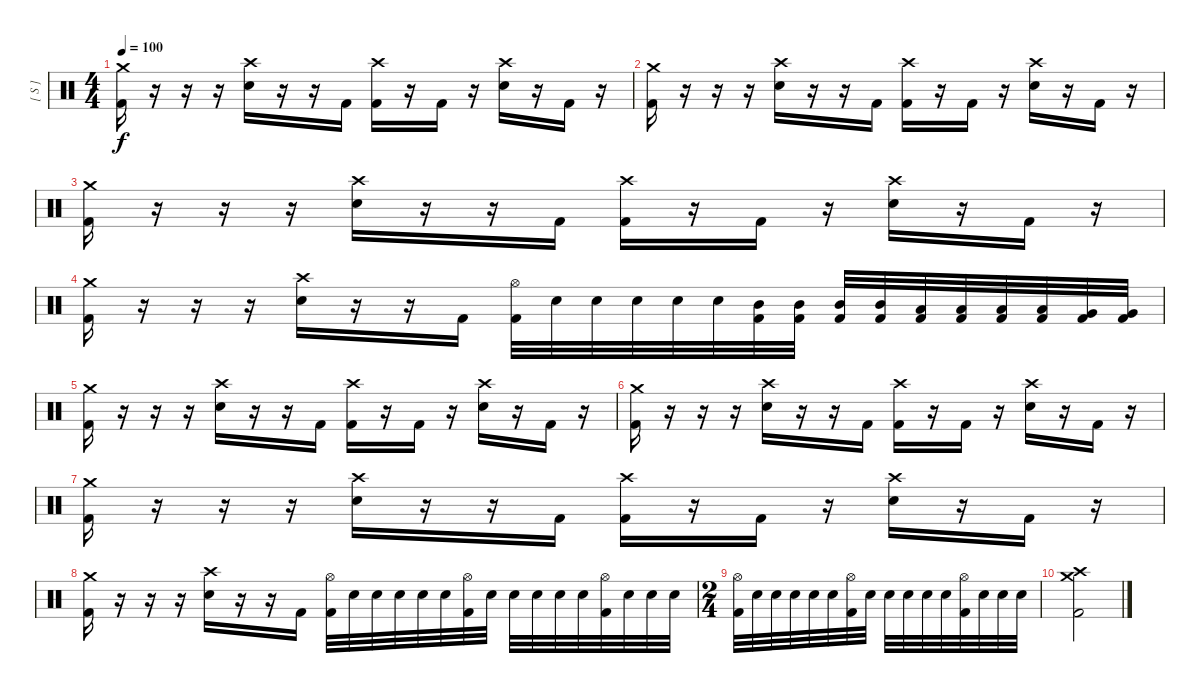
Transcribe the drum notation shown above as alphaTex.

\track ("[ S ]" "[ S ]") {instrument percussion}
\staff {score}
\articulation defaults
\ts (4 4)
\tempo 100
\clef neutral
\ks c
("Kick (hit) 2" "Crash medium (hit)").16{dy f} r.16 r.16 r.16 ("Electric Snare (hit)" "Crash high (hit)").16 r.16 r.16 "Kick (hit) 2".16 ("Kick (hit) 2" "Crash high (hit)").16 r.16 "Kick (hit) 2".16 r.16 ("Electric Snare (hit)" "Crash high (hit)").16 r.16 "Kick (hit) 2".16 r.16 |
("Kick (hit) 2" "Crash medium (hit)").16 r.16 r.16 r.16 ("Electric Snare (hit)" "Crash high (hit)").16 r.16 r.16 "Kick (hit) 2".16 ("Kick (hit) 2" "Crash high (hit)").16 r.16 "Kick (hit) 2".16 r.16 ("Electric Snare (hit)" "Crash high (hit)").16 r.16 "Kick (hit) 2".16 r.16 |
("Kick (hit) 2" "Crash medium (hit)").16 r.16 r.16 r.16 ("Electric Snare (hit)" "Crash high (hit)").16 r.16 r.16 "Kick (hit) 2".16 ("Kick (hit) 2" "Crash high (hit)").16 r.16 "Kick (hit) 2".16 r.16 ("Electric Snare (hit)" "Crash high (hit)").16 r.16 "Kick (hit) 2".16 r.16 |
("Kick (hit) 2" "Crash medium (hit)").16 r.16 r.16 r.16 ("Electric Snare (hit)" "Crash high (hit)").16 r.16 r.16 "Kick (hit) 2".16 ("Kick (hit) 2" "Hi-Hat (open)").32 "Electric Snare (hit)".32 "Electric Snare (hit)".32 "Electric Snare (hit)".32 "Electric Snare (hit)".32 "Electric Snare (hit)".32 ("Kick (hit) 2" "Mid Tom (hit)").32 ("Kick (hit) 2" "Mid Tom (hit)").32 ("Kick (hit) 2" "Mid Tom (hit)").32 ("Kick (hit) 2" "Mid Tom (hit)").32 ("Kick (hit) 2" "Low Tom (hit)").32 ("Kick (hit) 2" "Low Tom (hit)").32 ("Kick (hit) 2" "Low Tom (hit)").32 ("Kick (hit) 2" "Low Tom (hit)").32 ("Kick (hit) 2" "Very Low Tom (hit)").32 ("Kick (hit) 2" "Very Low Tom (hit)").32 |
("Kick (hit) 2" "Crash medium (hit)").16 r.16 r.16 r.16 ("Electric Snare (hit)" "Crash high (hit)").16 r.16 r.16 "Kick (hit) 2".16 ("Kick (hit) 2" "Crash high (hit)").16 r.16 "Kick (hit) 2".16 r.16 ("Electric Snare (hit)" "Crash high (hit)").16 r.16 "Kick (hit) 2".16 r.16 |
("Kick (hit) 2" "Crash medium (hit)").16 r.16 r.16 r.16 ("Electric Snare (hit)" "Crash high (hit)").16 r.16 r.16 "Kick (hit) 2".16 ("Kick (hit) 2" "Crash high (hit)").16 r.16 "Kick (hit) 2".16 r.16 ("Electric Snare (hit)" "Crash high (hit)").16 r.16 "Kick (hit) 2".16 r.16 |
("Kick (hit) 2" "Crash medium (hit)").16 r.16 r.16 r.16 ("Electric Snare (hit)" "Crash high (hit)").16 r.16 r.16 "Kick (hit) 2".16 ("Kick (hit) 2" "Crash high (hit)").16 r.16 "Kick (hit) 2".16 r.16 ("Electric Snare (hit)" "Crash high (hit)").16 r.16 "Kick (hit) 2".16 r.16 |
("Kick (hit) 2" "Crash medium (hit)").16 r.16 r.16 r.16 ("Electric Snare (hit)" "Crash high (hit)").16 r.16 r.16 "Kick (hit) 2".16 ("Kick (hit) 2" "Hi-Hat (open)").32 "Electric Snare (hit)".32 "Electric Snare (hit)".32 "Electric Snare (hit)".32 "Electric Snare (hit)".32 "Electric Snare (hit)".32 ("Kick (hit) 2" "Hi-Hat (open)").32 "Electric Snare (hit)".32 "Electric Snare (hit)".32 "Electric Snare (hit)".32 "Electric Snare (hit)".32 "Electric Snare (hit)".32 ("Kick (hit) 2" "Hi-Hat (open)").32 "Electric Snare (hit)".32 "Electric Snare (hit)".32 "Electric Snare (hit)".32 |
\ts (2 4)
("Kick (hit) 2" "Hi-Hat (open)").32 "Electric Snare (hit)".32 "Electric Snare (hit)".32 "Electric Snare (hit)".32 "Electric Snare (hit)".32 "Electric Snare (hit)".32 ("Kick (hit) 2" "Hi-Hat (open)").32 "Electric Snare (hit)".32 "Electric Snare (hit)".32 "Electric Snare (hit)".32 "Electric Snare (hit)".32 "Electric Snare (hit)".32 ("Kick (hit) 2" "Hi-Hat (open)").32 "Electric Snare (hit)".32 "Electric Snare (hit)".32 "Electric Snare (hit)".32 |
("Crash medium (hit)" "Crash high (hit)" "Kick (hit) 2").2
